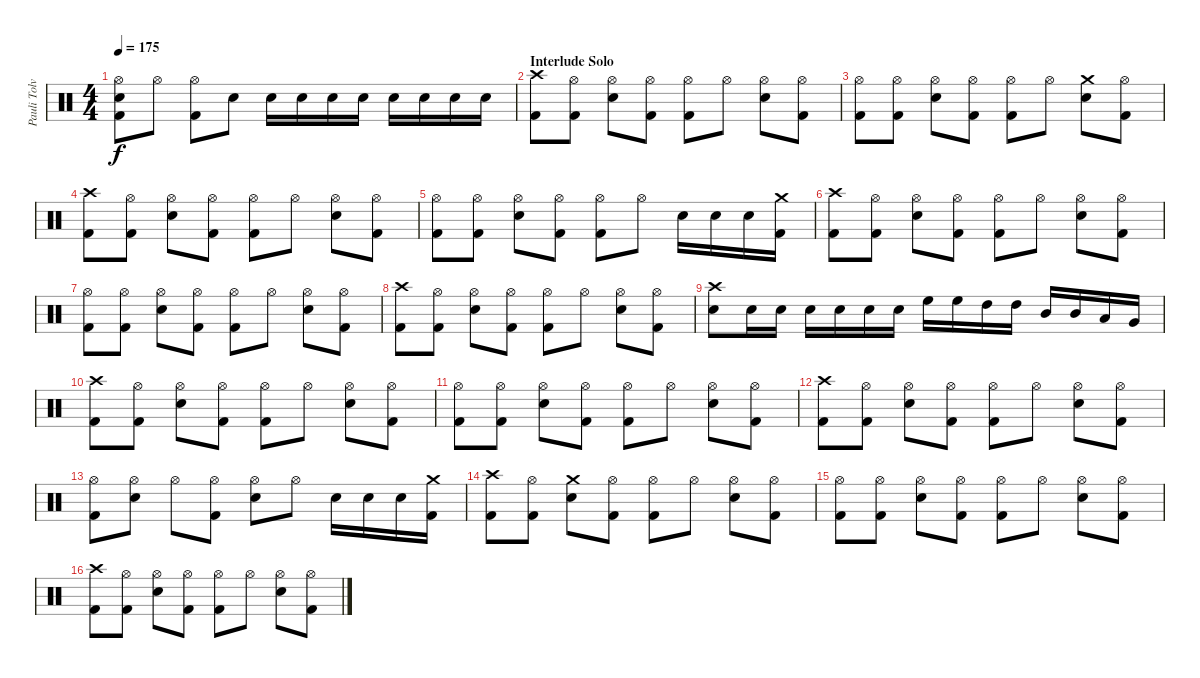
\track ("Pauli Tolvanen-Drums" "Pauli Tolv") {instrument percussion}
\staff {score}
\articulation defaults
\ts (4 4)
\tempo 175
\clef neutral
\ks c
("Hi-Hat (open)" "Snare (hit) 2" "Kick (hit) 2").8{dy f} "Hi-Hat (open)".8 ("Hi-Hat (open)" "Kick (hit) 2").8 "Snare (hit) 2".8 "Snare (hit) 2".16 "Snare (hit) 2".16 "Snare (hit) 2".16 "Snare (hit) 2".16 "Snare (hit) 2".16 "Snare (hit) 2".16 "Snare (hit) 2".16 "Snare (hit) 2".16 |
\section ("" "Interlude Solo")
("Crash high (hit)" "Kick (hit) 2").8 ("Hi-Hat (open)" "Kick (hit) 2").8 ("Hi-Hat (open)" "Snare (hit) 2").8 ("Hi-Hat (open)" "Kick (hit) 2").8 ("Hi-Hat (open)" "Kick (hit) 2").8 "Hi-Hat (open)".8 ("Hi-Hat (open)" "Snare (hit) 2").8 ("Hi-Hat (open)" "Kick (hit) 2").8 |
("Hi-Hat (open)" "Kick (hit) 2").8 ("Hi-Hat (open)" "Kick (hit) 2").8 ("Hi-Hat (open)" "Snare (hit) 2").8 ("Hi-Hat (open)" "Kick (hit) 2").8 ("Hi-Hat (open)" "Kick (hit) 2").8 "Hi-Hat (open)".8 ("Crash medium (hit)" "Snare (hit) 2").8 ("Hi-Hat (open)" "Kick (hit) 2").8 |
("Crash high (hit)" "Kick (hit) 2").8 ("Hi-Hat (open)" "Kick (hit) 2").8 ("Hi-Hat (open)" "Snare (hit) 2").8 ("Hi-Hat (open)" "Kick (hit) 2").8 ("Hi-Hat (open)" "Kick (hit) 2").8 "Hi-Hat (open)".8 ("Hi-Hat (open)" "Snare (hit) 2").8 ("Hi-Hat (open)" "Kick (hit) 2").8 |
("Hi-Hat (open)" "Kick (hit) 2").8 ("Hi-Hat (open)" "Kick (hit) 2").8 ("Hi-Hat (open)" "Snare (hit) 2").8 ("Hi-Hat (open)" "Kick (hit) 2").8 ("Hi-Hat (open)" "Kick (hit) 2").8 "Hi-Hat (open)".8 "Snare (hit) 2".16 "Snare (hit) 2".16 "Snare (hit) 2".16 ("Crash medium (hit)" "Kick (hit) 2").16 |
("Crash high (hit)" "Kick (hit) 2").8 ("Hi-Hat (open)" "Kick (hit) 2").8 ("Hi-Hat (open)" "Snare (hit) 2").8 ("Hi-Hat (open)" "Kick (hit) 2").8 ("Hi-Hat (open)" "Kick (hit) 2").8 "Hi-Hat (open)".8 ("Hi-Hat (open)" "Snare (hit) 2").8 ("Hi-Hat (open)" "Kick (hit) 2").8 |
("Hi-Hat (open)" "Kick (hit) 2").8 ("Hi-Hat (open)" "Kick (hit) 2").8 ("Hi-Hat (open)" "Snare (hit) 2").8 ("Hi-Hat (open)" "Kick (hit) 2").8 ("Hi-Hat (open)" "Kick (hit) 2").8 "Hi-Hat (open)".8 ("Hi-Hat (open)" "Snare (hit) 2").8 ("Hi-Hat (open)" "Kick (hit) 2").8 |
("Crash high (hit)" "Kick (hit) 2").8 ("Hi-Hat (open)" "Kick (hit) 2").8 ("Hi-Hat (open)" "Snare (hit) 2").8 ("Hi-Hat (open)" "Kick (hit) 2").8 ("Hi-Hat (open)" "Kick (hit) 2").8 "Hi-Hat (open)".8 ("Hi-Hat (open)" "Snare (hit) 2").8 ("Hi-Hat (open)" "Kick (hit) 2").8 |
("Crash high (hit)" "Snare (hit) 2").8 "Snare (hit) 2".16 "Snare (hit) 2".16 "Snare (hit) 2".16 "Snare (hit) 2".16 "Snare (hit) 2".16 "Snare (hit) 2".16 "High Floor Tom (hit)".16 "High Floor Tom (hit)".16 "High Tom (hit)".16 "High Tom (hit)".16 "Mid Tom (hit)".16 "Mid Tom (hit)".16 "Low Tom (hit)".16 "Very Low Tom (hit)".16 |
("Crash high (hit)" "Kick (hit) 2").8 ("Hi-Hat (open)" "Kick (hit) 2").8 ("Hi-Hat (open)" "Snare (hit) 2").8 ("Hi-Hat (open)" "Kick (hit) 2").8 ("Hi-Hat (open)" "Kick (hit) 2").8 "Hi-Hat (open)".8 ("Hi-Hat (open)" "Snare (hit) 2").8 ("Hi-Hat (open)" "Kick (hit) 2").8 |
("Hi-Hat (open)" "Kick (hit) 2").8 ("Hi-Hat (open)" "Kick (hit) 2").8 ("Hi-Hat (open)" "Snare (hit) 2").8 ("Hi-Hat (open)" "Kick (hit) 2").8 ("Hi-Hat (open)" "Kick (hit) 2").8 "Hi-Hat (open)".8 ("Hi-Hat (open)" "Snare (hit) 2").8 ("Hi-Hat (open)" "Kick (hit) 2").8 |
("Crash high (hit)" "Kick (hit) 2").8 ("Hi-Hat (open)" "Kick (hit) 2").8 ("Hi-Hat (open)" "Snare (hit) 2").8 ("Hi-Hat (open)" "Kick (hit) 2").8 ("Hi-Hat (open)" "Kick (hit) 2").8 "Hi-Hat (open)".8 ("Hi-Hat (open)" "Snare (hit) 2").8 ("Hi-Hat (open)" "Kick (hit) 2").8 |
("Hi-Hat (open)" "Kick (hit) 2").8 ("Hi-Hat (open)" "Snare (hit) 2").8 "Hi-Hat (open)".8 ("Hi-Hat (open)" "Kick (hit) 2").8 ("Hi-Hat (open)" "Snare (hit) 2").8 "Hi-Hat (open)".8 "Snare (hit) 2".16 "Snare (hit) 2".16 "Snare (hit) 2".16 ("Crash medium (hit)" "Kick (hit) 2").16 |
("Crash high (hit)" "Kick (hit) 2").8 ("Hi-Hat (open)" "Kick (hit) 2").8 ("Crash medium (hit)" "Snare (hit) 2").8 ("Hi-Hat (open)" "Kick (hit) 2").8 ("Hi-Hat (open)" "Kick (hit) 2").8 "Hi-Hat (open)".8 ("Hi-Hat (open)" "Snare (hit) 2").8 ("Hi-Hat (open)" "Kick (hit) 2").8 |
("Hi-Hat (open)" "Kick (hit) 2").8 ("Hi-Hat (open)" "Kick (hit) 2").8 ("Hi-Hat (open)" "Snare (hit) 2").8 ("Hi-Hat (open)" "Kick (hit) 2").8 ("Hi-Hat (open)" "Kick (hit) 2").8 "Hi-Hat (open)".8 ("Hi-Hat (open)" "Snare (hit) 2").8 ("Hi-Hat (open)" "Kick (hit) 2").8 |
("Crash high (hit)" "Kick (hit) 2").8 ("Hi-Hat (open)" "Kick (hit) 2").8 ("Hi-Hat (open)" "Snare (hit) 2").8 ("Hi-Hat (open)" "Kick (hit) 2").8 ("Hi-Hat (open)" "Kick (hit) 2").8 "Hi-Hat (open)".8 ("Hi-Hat (open)" "Snare (hit) 2").8 ("Hi-Hat (open)" "Kick (hit) 2").8
